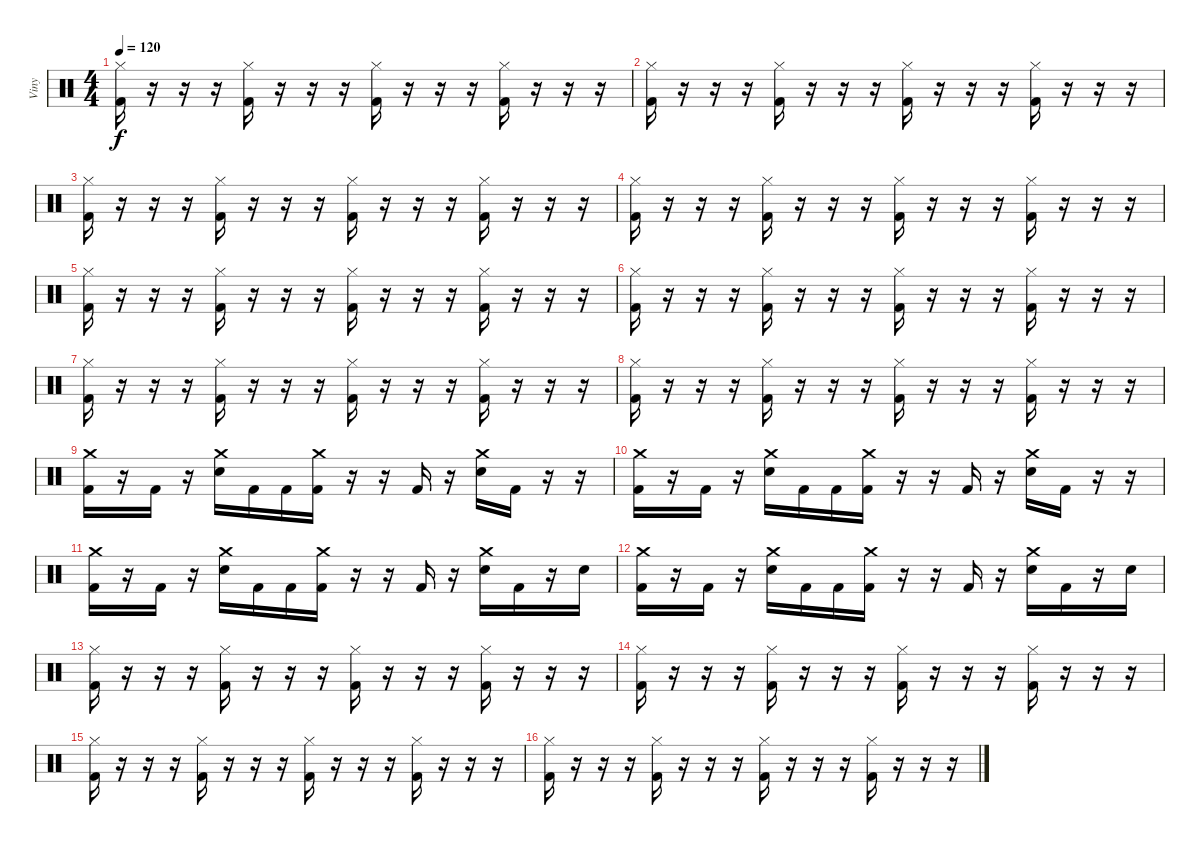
\track ("Viny" "Viny") {instrument percussion}
\staff {score}
\articulation defaults
\ts (4 4)
\tempo 120
\clef neutral
\ks c
("Hi-Hat (closed)" "Kick (hit) 2").16{dy f} r.16 r.16 r.16 ("Hi-Hat (closed)" "Kick (hit) 2").16 r.16 r.16 r.16 ("Hi-Hat (closed)" "Kick (hit) 2").16 r.16 r.16 r.16 ("Hi-Hat (closed)" "Kick (hit) 2").16 r.16 r.16 r.16 |
("Hi-Hat (closed)" "Kick (hit) 2").16 r.16 r.16 r.16 ("Hi-Hat (closed)" "Kick (hit) 2").16 r.16 r.16 r.16 ("Hi-Hat (closed)" "Kick (hit) 2").16 r.16 r.16 r.16 ("Hi-Hat (closed)" "Kick (hit) 2").16 r.16 r.16 r.16 |
("Hi-Hat (closed)" "Kick (hit) 2").16 r.16 r.16 r.16 ("Hi-Hat (closed)" "Kick (hit) 2").16 r.16 r.16 r.16 ("Hi-Hat (closed)" "Kick (hit) 2").16 r.16 r.16 r.16 ("Hi-Hat (closed)" "Kick (hit) 2").16 r.16 r.16 r.16 |
("Hi-Hat (closed)" "Kick (hit) 2").16 r.16 r.16 r.16 ("Hi-Hat (closed)" "Kick (hit) 2").16 r.16 r.16 r.16 ("Hi-Hat (closed)" "Kick (hit) 2").16 r.16 r.16 r.16 ("Hi-Hat (closed)" "Kick (hit) 2").16 r.16 r.16 r.16 |
("Hi-Hat (closed)" "Kick (hit) 2").16 r.16 r.16 r.16 ("Hi-Hat (closed)" "Kick (hit) 2").16 r.16 r.16 r.16 ("Hi-Hat (closed)" "Kick (hit) 2").16 r.16 r.16 r.16 ("Hi-Hat (closed)" "Kick (hit) 2").16 r.16 r.16 r.16 |
("Hi-Hat (closed)" "Kick (hit) 2").16 r.16 r.16 r.16 ("Hi-Hat (closed)" "Kick (hit) 2").16 r.16 r.16 r.16 ("Hi-Hat (closed)" "Kick (hit) 2").16 r.16 r.16 r.16 ("Hi-Hat (closed)" "Kick (hit) 2").16 r.16 r.16 r.16 |
("Hi-Hat (closed)" "Kick (hit) 2").16 r.16 r.16 r.16 ("Hi-Hat (closed)" "Kick (hit) 2").16 r.16 r.16 r.16 ("Hi-Hat (closed)" "Kick (hit) 2").16 r.16 r.16 r.16 ("Hi-Hat (closed)" "Kick (hit) 2").16 r.16 r.16 r.16 |
("Hi-Hat (closed)" "Kick (hit) 2").16 r.16 r.16 r.16 ("Hi-Hat (closed)" "Kick (hit) 2").16 r.16 r.16 r.16 ("Hi-Hat (closed)" "Kick (hit) 2").16 r.16 r.16 r.16 ("Hi-Hat (closed)" "Kick (hit) 2").16 r.16 r.16 r.16 |
("Crash medium (hit)" "Kick (hit) 2").16 r.16 "Kick (hit) 2".16 r.16 ("Crash medium (hit)" "Electric Snare (hit)").16 "Kick (hit) 2".16 "Kick (hit) 2".16 ("Crash medium (hit)" "Kick (hit) 2").16 r.16 r.16 "Kick (hit) 2".16 r.16 ("Crash medium (hit)" "Electric Snare (hit)").16 "Kick (hit) 2".16 r.16 r.16 |
("Crash medium (hit)" "Kick (hit) 2").16 r.16 "Kick (hit) 2".16 r.16 ("Crash medium (hit)" "Electric Snare (hit)").16 "Kick (hit) 2".16 "Kick (hit) 2".16 ("Crash medium (hit)" "Kick (hit) 2").16 r.16 r.16 "Kick (hit) 2".16 r.16 ("Crash medium (hit)" "Electric Snare (hit)").16 "Kick (hit) 2".16 r.16 r.16 |
("Crash medium (hit)" "Kick (hit) 2").16 r.16 "Kick (hit) 2".16 r.16 ("Crash medium (hit)" "Electric Snare (hit)").16 "Kick (hit) 2".16 "Kick (hit) 2".16 ("Crash medium (hit)" "Kick (hit) 2").16 r.16 r.16 "Kick (hit) 2".16 r.16 ("Crash medium (hit)" "Electric Snare (hit)").16 "Kick (hit) 2".16 r.16 "Electric Snare (hit)".16 |
("Crash medium (hit)" "Kick (hit) 2").16 r.16 "Kick (hit) 2".16 r.16 ("Crash medium (hit)" "Electric Snare (hit)").16 "Kick (hit) 2".16 "Kick (hit) 2".16 ("Crash medium (hit)" "Kick (hit) 2").16 r.16 r.16 "Kick (hit) 2".16 r.16 ("Crash medium (hit)" "Electric Snare (hit)").16 "Kick (hit) 2".16 r.16 "Electric Snare (hit)".16 |
("Hi-Hat (closed)" "Kick (hit) 2").16 r.16 r.16 r.16 ("Hi-Hat (closed)" "Kick (hit) 2").16 r.16 r.16 r.16 ("Hi-Hat (closed)" "Kick (hit) 2").16 r.16 r.16 r.16 ("Hi-Hat (closed)" "Kick (hit) 2").16 r.16 r.16 r.16 |
("Hi-Hat (closed)" "Kick (hit) 2").16 r.16 r.16 r.16 ("Hi-Hat (closed)" "Kick (hit) 2").16 r.16 r.16 r.16 ("Hi-Hat (closed)" "Kick (hit) 2").16 r.16 r.16 r.16 ("Hi-Hat (closed)" "Kick (hit) 2").16 r.16 r.16 r.16 |
("Hi-Hat (closed)" "Kick (hit) 2").16 r.16 r.16 r.16 ("Hi-Hat (closed)" "Kick (hit) 2").16 r.16 r.16 r.16 ("Hi-Hat (closed)" "Kick (hit) 2").16 r.16 r.16 r.16 ("Hi-Hat (closed)" "Kick (hit) 2").16 r.16 r.16 r.16 |
("Hi-Hat (closed)" "Kick (hit) 2").16 r.16 r.16 r.16 ("Hi-Hat (closed)" "Kick (hit) 2").16 r.16 r.16 r.16 ("Hi-Hat (closed)" "Kick (hit) 2").16 r.16 r.16 r.16 ("Hi-Hat (closed)" "Kick (hit) 2").16 r.16 r.16 r.16
